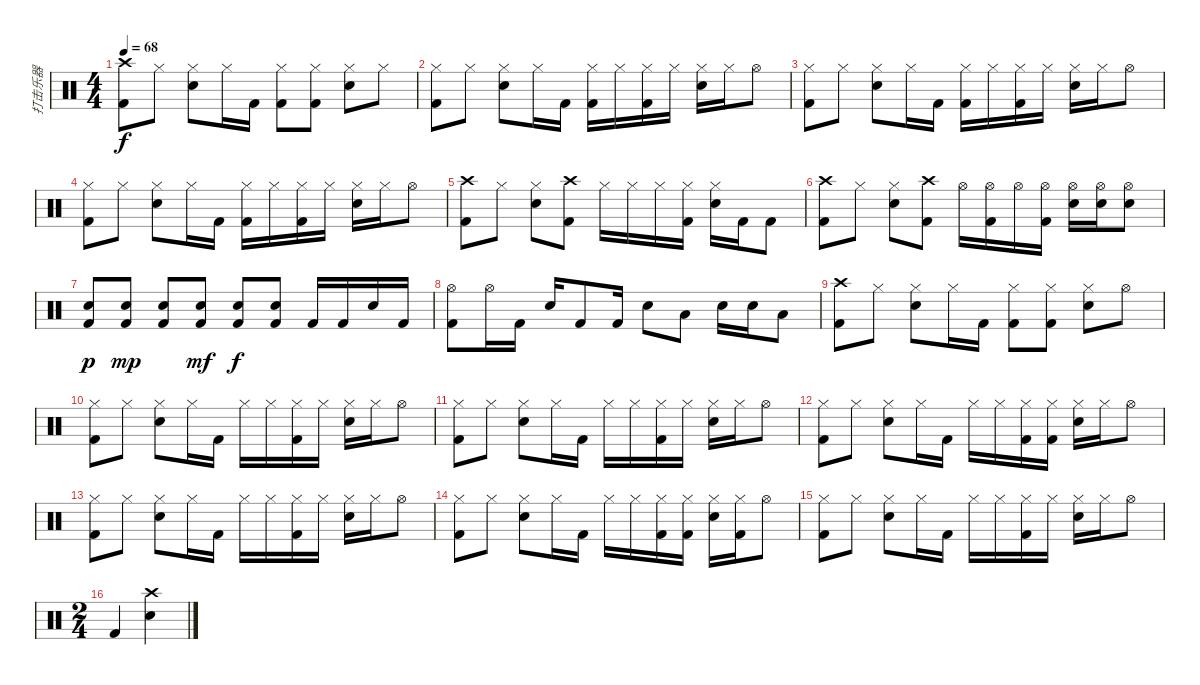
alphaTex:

\track ("打击乐器" "打击乐器") {instrument percussion}
\staff {score}
\articulation defaults
\ts (4 4)
\tempo 68
\clef neutral
\ks c
("Crash high (hit)" "Kick (hit) 2").8{dy f} "Hi-Hat (closed)".8 ("Hi-Hat (closed)" "Electric Snare (hit)").8 "Hi-Hat (closed)".16 "Kick (hit) 2".16 ("Hi-Hat (closed)" "Kick (hit) 2").8 ("Hi-Hat (closed)" "Kick (hit) 2").8 ("Hi-Hat (closed)" "Electric Snare (hit)").8 "Hi-Hat (closed)".8 |
("Hi-Hat (closed)" "Kick (hit) 2").8 "Hi-Hat (closed)".8 ("Hi-Hat (closed)" "Electric Snare (hit)").8 "Hi-Hat (closed)".16 "Kick (hit) 2".16 ("Hi-Hat (closed)" "Kick (hit) 2").16 "Hi-Hat (closed)".16 ("Hi-Hat (closed)" "Kick (hit) 2").16 "Hi-Hat (closed)".16 ("Hi-Hat (closed)" "Electric Snare (hit)").16 "Hi-Hat (closed)".16 "Hi-Hat (open)".8 |
("Hi-Hat (closed)" "Kick (hit) 2").8 "Hi-Hat (closed)".8 ("Hi-Hat (closed)" "Electric Snare (hit)").8 "Hi-Hat (closed)".16 "Kick (hit) 2".16 ("Hi-Hat (closed)" "Kick (hit) 2").16 "Hi-Hat (closed)".16 ("Hi-Hat (closed)" "Kick (hit) 2").16 "Hi-Hat (closed)".16 ("Hi-Hat (closed)" "Electric Snare (hit)").16 "Hi-Hat (closed)".16 "Hi-Hat (open)".8 |
("Hi-Hat (closed)" "Kick (hit) 2").8 "Hi-Hat (closed)".8 ("Hi-Hat (closed)" "Electric Snare (hit)").8 "Hi-Hat (closed)".16 "Kick (hit) 2".16 ("Hi-Hat (closed)" "Kick (hit) 2").16 "Hi-Hat (closed)".16 ("Hi-Hat (closed)" "Kick (hit) 2").16 "Hi-Hat (closed)".16 ("Hi-Hat (closed)" "Electric Snare (hit)").16 "Hi-Hat (closed)".16 "Hi-Hat (open)".8 |
("Crash high (hit)" "Kick (hit) 2").8 "Hi-Hat (closed)".8 ("Hi-Hat (closed)" "Electric Snare (hit)").8 ("Crash high (hit)" "Kick (hit) 2").8 "Hi-Hat (closed)".16 "Hi-Hat (closed)".16 "Hi-Hat (closed)".16 ("Hi-Hat (closed)" "Kick (hit) 2").16 ("Hi-Hat (closed)" "Electric Snare (hit)").16 "Kick (hit) 2".16 "Kick (hit) 2".8 |
("Crash high (hit)" "Kick (hit) 2").8 "Hi-Hat (closed)".8 ("Hi-Hat (closed)" "Electric Snare (hit)").8 ("Crash high (hit)" "Kick (hit) 2").8 "Hi-Hat (open)".16 ("Hi-Hat (open)" "Kick (hit) 2").16 "Hi-Hat (open)".16 ("Hi-Hat (open)" "Kick (hit) 2").16 ("Hi-Hat (open)" "Electric Snare (hit)").16 ("Hi-Hat (open)" "Electric Snare (hit)").16 ("Hi-Hat (open)" "Electric Snare (hit)").8 |
("Electric Snare (hit)" "Kick (hit) 2").8{dy p} ("Electric Snare (hit)" "Kick (hit) 2").8{dy mp} ("Electric Snare (hit)" "Kick (hit) 2").8 ("Electric Snare (hit)" "Kick (hit) 2").8{dy mf} ("Electric Snare (hit)" "Kick (hit) 2").8{dy f} ("Electric Snare (hit)" "Kick (hit) 2").8 "Kick (hit) 2".16 "Kick (hit) 2".16 "Electric Snare (hit)".16 "Kick (hit) 2".16 |
("Hi-Hat (open)" "Kick (hit) 2").8 "Hi-Hat (open)".16 "Kick (hit) 2".16 "Electric Snare (hit)".16 "Kick (hit) 2".8 "Kick (hit) 2".16 "Electric Snare (hit)".8 "Low Tom (hit)".8 "Electric Snare (hit)".16 "Electric Snare (hit)".16 "Low Tom (hit)".8 |
("Crash high (hit)" "Kick (hit) 2").8 "Hi-Hat (closed)".8 ("Hi-Hat (closed)" "Electric Snare (hit)").8 "Hi-Hat (closed)".16 "Kick (hit) 2".16 ("Hi-Hat (closed)" "Kick (hit) 2").8 ("Hi-Hat (closed)" "Kick (hit) 2").8 ("Hi-Hat (closed)" "Electric Snare (hit)").8 "Hi-Hat (open)".8 |
("Hi-Hat (closed)" "Kick (hit) 2").8 "Hi-Hat (closed)".8 ("Hi-Hat (closed)" "Electric Snare (hit)").8 "Hi-Hat (closed)".16 "Kick (hit) 2".16 "Hi-Hat (closed)".16 "Hi-Hat (closed)".16 ("Hi-Hat (closed)" "Kick (hit) 2").16 "Hi-Hat (closed)".16 ("Hi-Hat (closed)" "Electric Snare (hit)").16 "Hi-Hat (closed)".16 "Hi-Hat (open)".8 |
("Hi-Hat (closed)" "Kick (hit) 2").8 "Hi-Hat (closed)".8 ("Hi-Hat (closed)" "Electric Snare (hit)").8 "Hi-Hat (closed)".16 "Kick (hit) 2".16 "Hi-Hat (closed)".16 "Hi-Hat (closed)".16 ("Hi-Hat (closed)" "Kick (hit) 2").16 "Hi-Hat (closed)".16 ("Hi-Hat (closed)" "Electric Snare (hit)").16 "Hi-Hat (closed)".16 "Hi-Hat (open)".8 |
("Hi-Hat (closed)" "Kick (hit) 2").8 "Hi-Hat (closed)".8 ("Hi-Hat (closed)" "Electric Snare (hit)").8 "Hi-Hat (closed)".16 "Kick (hit) 2".16 "Hi-Hat (closed)".16 "Hi-Hat (closed)".16 ("Hi-Hat (closed)" "Kick (hit) 2").16 ("Hi-Hat (closed)" "Kick (hit) 2").16 ("Hi-Hat (closed)" "Electric Snare (hit)").16 "Hi-Hat (closed)".16 "Hi-Hat (open)".8 |
("Hi-Hat (closed)" "Kick (hit) 2").8 "Hi-Hat (closed)".8 ("Hi-Hat (closed)" "Electric Snare (hit)").8 "Hi-Hat (closed)".16 "Kick (hit) 2".16 "Hi-Hat (closed)".16 "Hi-Hat (closed)".16 ("Hi-Hat (closed)" "Kick (hit) 2").16 "Hi-Hat (closed)".16 ("Hi-Hat (closed)" "Electric Snare (hit)").16 "Hi-Hat (closed)".16 "Hi-Hat (open)".8 |
("Hi-Hat (closed)" "Kick (hit) 2").8 "Hi-Hat (closed)".8 ("Hi-Hat (closed)" "Electric Snare (hit)").8 "Hi-Hat (closed)".16 "Kick (hit) 2".16 "Hi-Hat (closed)".16 "Hi-Hat (closed)".16 ("Hi-Hat (closed)" "Kick (hit) 2").16 ("Hi-Hat (closed)" "Kick (hit) 2").16 ("Hi-Hat (closed)" "Electric Snare (hit)").16 ("Hi-Hat (closed)" "Kick (hit) 2").16 "Hi-Hat (open)".8 |
("Hi-Hat (closed)" "Kick (hit) 2").8 "Hi-Hat (closed)".8 ("Hi-Hat (closed)" "Electric Snare (hit)").8 "Hi-Hat (closed)".16 "Kick (hit) 2".16 "Hi-Hat (closed)".16 "Hi-Hat (closed)".16 ("Hi-Hat (closed)" "Kick (hit) 2").16 "Hi-Hat (closed)".16 ("Hi-Hat (closed)" "Electric Snare (hit)").16 "Hi-Hat (closed)".16 "Hi-Hat (open)".8 |
\ts (2 4)
"Kick (hit) 2".4 ("Crash high (hit)" "Electric Snare (hit)").4
